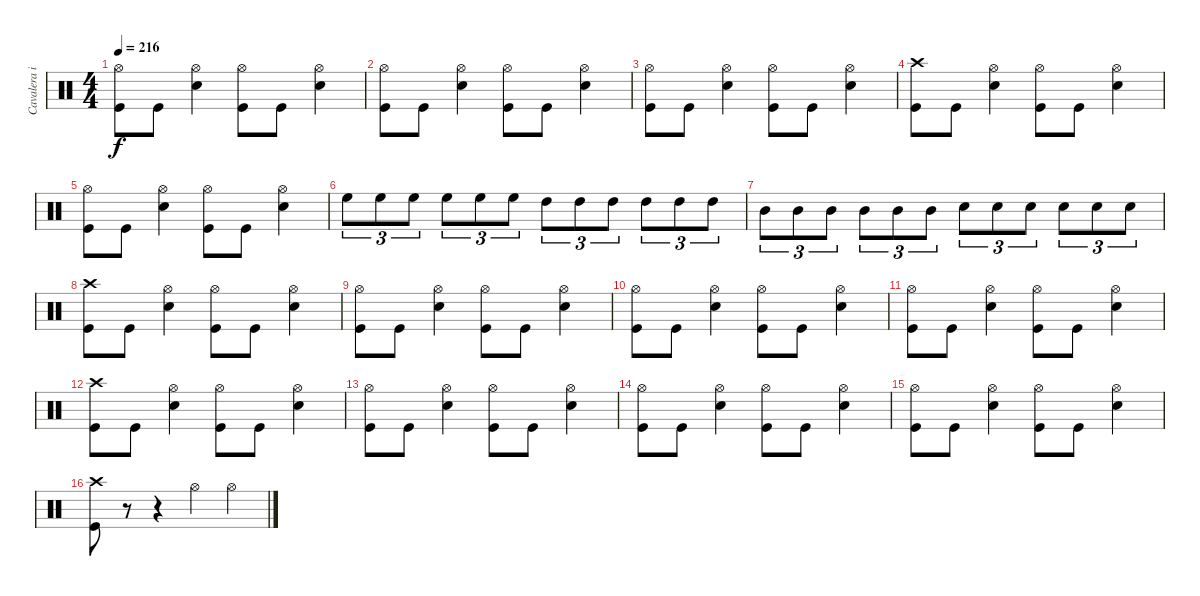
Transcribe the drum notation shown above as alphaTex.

\track ("Cavalera igor" "Cavalera i") {instrument percussion}
\staff {score}
\articulation defaults
\ts (4 4)
\tempo 216
\clef neutral
\ks c
("Hi-Hat (open)" "Kick (hit)").8{dy f} "Kick (hit)".8 ("Hi-Hat (open)" "Electric Snare (hit)").4 ("Hi-Hat (open)" "Kick (hit)").8 "Kick (hit)".8 ("Hi-Hat (open)" "Electric Snare (hit)").4 |
("Hi-Hat (open)" "Kick (hit)").8 "Kick (hit)".8 ("Hi-Hat (open)" "Electric Snare (hit)").4 ("Hi-Hat (open)" "Kick (hit)").8 "Kick (hit)".8 ("Hi-Hat (open)" "Electric Snare (hit)").4 |
("Hi-Hat (open)" "Kick (hit)").8 "Kick (hit)".8 ("Hi-Hat (open)" "Electric Snare (hit)").4 ("Hi-Hat (open)" "Kick (hit)").8 "Kick (hit)".8 ("Hi-Hat (open)" "Electric Snare (hit)").4 |
("Crash high (hit)" "Kick (hit)").8 "Kick (hit)".8 ("Hi-Hat (open)" "Electric Snare (hit)").4 ("Hi-Hat (open)" "Kick (hit)").8 "Kick (hit)".8 ("Hi-Hat (open)" "Electric Snare (hit)").4 |
("Hi-Hat (open)" "Kick (hit)").8 "Kick (hit)".8 ("Hi-Hat (open)" "Electric Snare (hit)").4 ("Hi-Hat (open)" "Kick (hit)").8 "Kick (hit)".8 ("Hi-Hat (open)" "Electric Snare (hit)").4 |
"High Floor Tom (hit)".8{tu (3 2)} "High Floor Tom (hit)".8{tu (3 2)} "High Floor Tom (hit)".8{tu (3 2)} "High Floor Tom (hit)".8{tu (3 2)} "High Floor Tom (hit)".8{tu (3 2)} "High Floor Tom (hit)".8{tu (3 2)} "High Tom (hit)".8{tu (3 2)} "High Tom (hit)".8{tu (3 2)} "High Tom (hit)".8{tu (3 2)} "High Tom (hit)".8{tu (3 2)} "High Tom (hit)".8{tu (3 2)} "High Tom (hit)".8{tu (3 2)} |
"Mid Tom (hit)".8{tu (3 2)} "Mid Tom (hit)".8{tu (3 2)} "Mid Tom (hit)".8{tu (3 2)} "Mid Tom (hit)".8{tu (3 2)} "Mid Tom (hit)".8{tu (3 2)} "Mid Tom (hit)".8{tu (3 2)} "Electric Snare (hit)".8{tu (3 2)} "Electric Snare (hit)".8{tu (3 2)} "Electric Snare (hit)".8{tu (3 2)} "Electric Snare (hit)".8{tu (3 2)} "Electric Snare (hit)".8{tu (3 2)} "Electric Snare (hit)".8{tu (3 2)} |
("Crash high (hit)" "Kick (hit)").8 "Kick (hit)".8 ("Hi-Hat (open)" "Electric Snare (hit)").4 ("Hi-Hat (open)" "Kick (hit)").8 "Kick (hit)".8 ("Hi-Hat (open)" "Electric Snare (hit)").4 |
("Hi-Hat (open)" "Kick (hit)").8 "Kick (hit)".8 ("Hi-Hat (open)" "Electric Snare (hit)").4 ("Hi-Hat (open)" "Kick (hit)").8 "Kick (hit)".8 ("Hi-Hat (open)" "Electric Snare (hit)").4 |
("Hi-Hat (open)" "Kick (hit)").8 "Kick (hit)".8 ("Hi-Hat (open)" "Electric Snare (hit)").4 ("Hi-Hat (open)" "Kick (hit)").8 "Kick (hit)".8 ("Hi-Hat (open)" "Electric Snare (hit)").4 |
("Hi-Hat (open)" "Kick (hit)").8 "Kick (hit)".8 ("Hi-Hat (open)" "Electric Snare (hit)").4 ("Hi-Hat (open)" "Kick (hit)").8 "Kick (hit)".8 ("Hi-Hat (open)" "Electric Snare (hit)").4 |
("Crash high (hit)" "Kick (hit)").8 "Kick (hit)".8 ("Hi-Hat (open)" "Electric Snare (hit)").4 ("Hi-Hat (open)" "Kick (hit)").8 "Kick (hit)".8 ("Hi-Hat (open)" "Electric Snare (hit)").4 |
("Hi-Hat (open)" "Kick (hit)").8 "Kick (hit)".8 ("Hi-Hat (open)" "Electric Snare (hit)").4 ("Hi-Hat (open)" "Kick (hit)").8 "Kick (hit)".8 ("Hi-Hat (open)" "Electric Snare (hit)").4 |
("Hi-Hat (open)" "Kick (hit)").8 "Kick (hit)".8 ("Hi-Hat (open)" "Electric Snare (hit)").4 ("Hi-Hat (open)" "Kick (hit)").8 "Kick (hit)".8 ("Hi-Hat (open)" "Electric Snare (hit)").4 |
("Hi-Hat (open)" "Kick (hit)").8 "Kick (hit)".8 ("Hi-Hat (open)" "Electric Snare (hit)").4 ("Hi-Hat (open)" "Kick (hit)").8 "Kick (hit)".8 ("Hi-Hat (open)" "Electric Snare (hit)").4 |
("Crash high (hit)" "Kick (hit)").8 r.8{volume 0} r.4 "Hi-Hat (open)".4{volume 16} "Hi-Hat (open)".4
